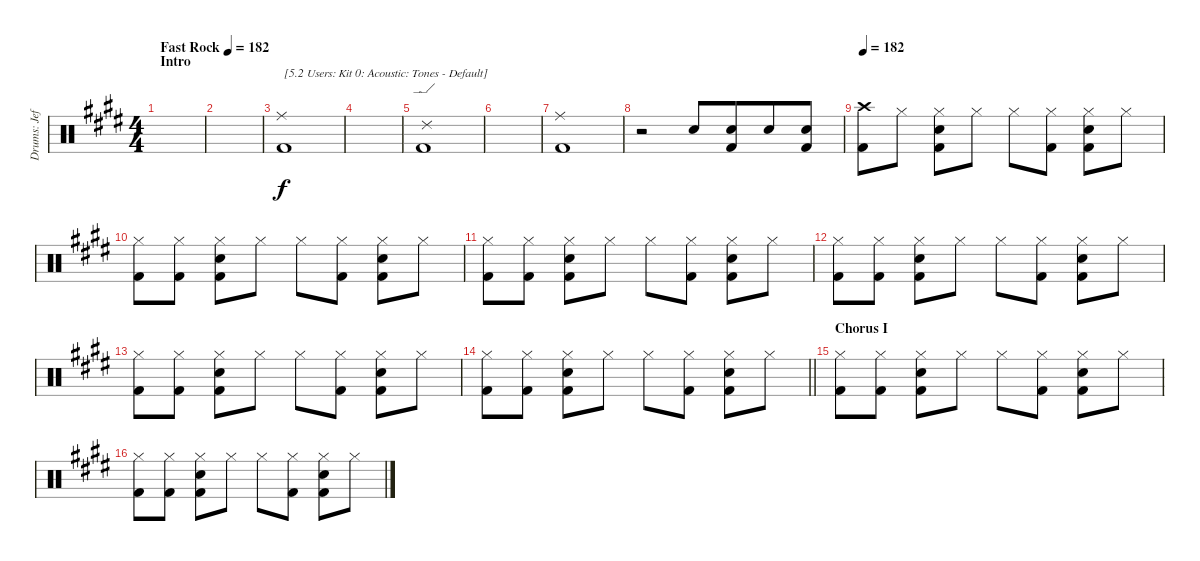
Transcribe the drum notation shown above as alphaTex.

\track ("Drums: Jeff" "Drums: Jef") {instrument percussion}
\staff {score}
\articulation defaults
\ts (4 4)
\section ("" "Intro")
\tempo (182 "Fast Rock")
\tempo 191
\tempo (182 "Fast Rock")
\clef neutral
\ks e
|
|
("Ride (middle)" "Kick (hit) 2").1{txt "[5.2 Users: Kit 0: Acoustic: Tones - Default]"} |
|
("Ride (edge) 2" "Kick (hit) 2").1 |
|
("Ride (middle)" "Kick (hit) 2").1 |
r.2 "Electric Snare (hit)".8 ("Electric Snare (hit)" "Kick (hit) 2").8{beam merge} "Electric Snare (hit)".8 ("Electric Snare (hit)" "Kick (hit) 2").8 |
\tempo 182
("Crash high (hit)" "Kick (hit) 2").8 "Hi-Hat (closed)".8 ("Hi-Hat (closed)" "Electric Snare (hit)" "Kick (hit) 2").8 "Hi-Hat (closed)".8 "Hi-Hat (closed)".8 ("Hi-Hat (closed)" "Kick (hit) 2").8 ("Hi-Hat (closed)" "Electric Snare (hit)" "Kick (hit) 2").8 "Hi-Hat (closed)".8 |
("Hi-Hat (closed)" "Kick (hit) 2").8 ("Hi-Hat (closed)" "Kick (hit) 2").8 ("Hi-Hat (closed)" "Electric Snare (hit)" "Kick (hit) 2").8 "Hi-Hat (closed)".8 "Hi-Hat (closed)".8 ("Hi-Hat (closed)" "Kick (hit) 2").8 ("Hi-Hat (closed)" "Electric Snare (hit)" "Kick (hit) 2").8 "Hi-Hat (closed)".8 |
("Hi-Hat (closed)" "Kick (hit) 2").8 ("Hi-Hat (closed)" "Kick (hit) 2").8 ("Hi-Hat (closed)" "Electric Snare (hit)" "Kick (hit) 2").8 "Hi-Hat (closed)".8 "Hi-Hat (closed)".8 ("Hi-Hat (closed)" "Kick (hit) 2").8 ("Hi-Hat (closed)" "Electric Snare (hit)" "Kick (hit) 2").8 "Hi-Hat (closed)".8 |
("Hi-Hat (closed)" "Kick (hit) 2").8 ("Hi-Hat (closed)" "Kick (hit) 2").8 ("Hi-Hat (closed)" "Electric Snare (hit)" "Kick (hit) 2").8 "Hi-Hat (closed)".8 "Hi-Hat (closed)".8 ("Hi-Hat (closed)" "Kick (hit) 2").8 ("Hi-Hat (closed)" "Electric Snare (hit)" "Kick (hit) 2").8 "Hi-Hat (closed)".8 |
("Hi-Hat (closed)" "Kick (hit) 2").8 ("Hi-Hat (closed)" "Kick (hit) 2").8 ("Hi-Hat (closed)" "Electric Snare (hit)" "Kick (hit) 2").8 "Hi-Hat (closed)".8 "Hi-Hat (closed)".8 ("Hi-Hat (closed)" "Kick (hit) 2").8 ("Hi-Hat (closed)" "Electric Snare (hit)" "Kick (hit) 2").8 "Hi-Hat (closed)".8 |
\barLineRight lightlight
("Hi-Hat (closed)" "Kick (hit) 2").8 ("Hi-Hat (closed)" "Kick (hit) 2").8 ("Hi-Hat (closed)" "Electric Snare (hit)" "Kick (hit) 2").8 "Hi-Hat (closed)".8 "Hi-Hat (closed)".8 ("Hi-Hat (closed)" "Kick (hit) 2").8 ("Hi-Hat (closed)" "Electric Snare (hit)" "Kick (hit) 2").8 "Hi-Hat (closed)".8 |
\section ("" "Chorus I")
("Hi-Hat (closed)" "Kick (hit) 2").8 ("Hi-Hat (closed)" "Kick (hit) 2").8 ("Hi-Hat (closed)" "Electric Snare (hit)" "Kick (hit) 2").8 "Hi-Hat (closed)".8 "Hi-Hat (closed)".8 ("Hi-Hat (closed)" "Kick (hit) 2").8 ("Hi-Hat (closed)" "Electric Snare (hit)" "Kick (hit) 2").8 "Hi-Hat (closed)".8 |
("Hi-Hat (closed)" "Kick (hit) 2").8 ("Hi-Hat (closed)" "Kick (hit) 2").8 ("Hi-Hat (closed)" "Electric Snare (hit)" "Kick (hit) 2").8 "Hi-Hat (closed)".8 "Hi-Hat (closed)".8 ("Hi-Hat (closed)" "Kick (hit) 2").8 ("Hi-Hat (closed)" "Electric Snare (hit)" "Kick (hit) 2").8 "Hi-Hat (closed)".8
